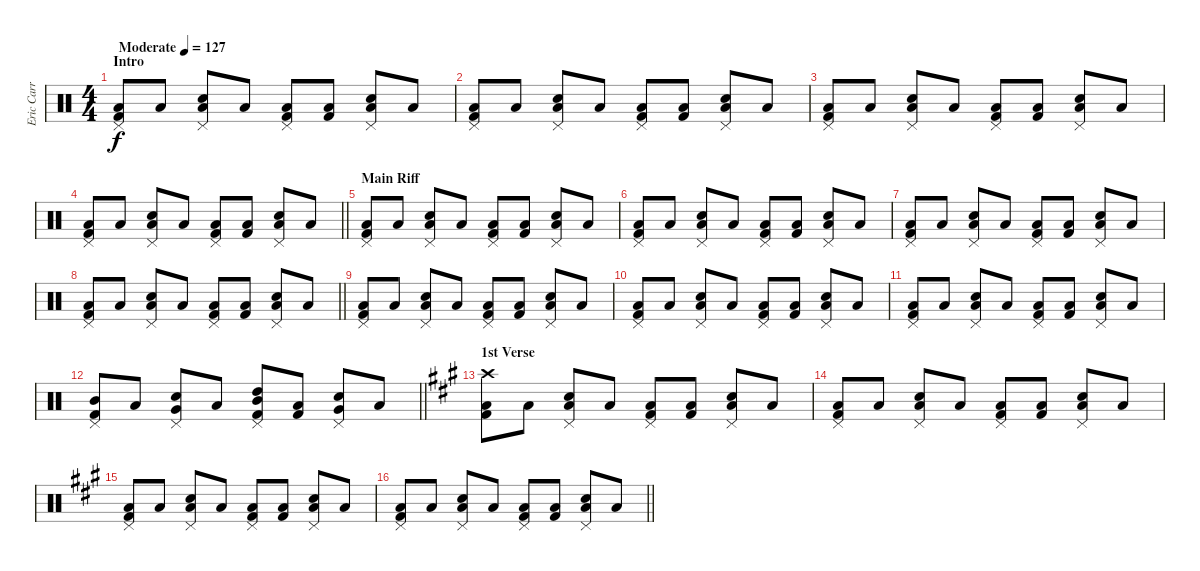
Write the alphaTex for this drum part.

\track ("Eric Carr (Drums)" "Eric Carr ") {instrument percussion}
\staff {score}
\articulation defaults
\ts (4 4)
\section ("" "Intro")
\tempo (127 "Moderate")
\clef neutral
\ks c
("Pedal Hi-Hat (hit)" "Low Tom (hit)" "Kick (hit) 2").8{dy f} "Low Tom (hit)".8 ("Pedal Hi-Hat (hit)" "Low Tom (hit)" "Snare (hit) 2").8 "Low Tom (hit)".8 ("Pedal Hi-Hat (hit)" "Low Tom (hit)" "Kick (hit) 2").8 ("Low Tom (hit)" "Kick (hit) 2").8 ("Pedal Hi-Hat (hit)" "Low Tom (hit)" "Snare (hit) 2").8 "Low Tom (hit)".8 |
("Pedal Hi-Hat (hit)" "Low Tom (hit)" "Kick (hit) 2").8 "Low Tom (hit)".8 ("Pedal Hi-Hat (hit)" "Low Tom (hit)" "Snare (hit) 2").8 "Low Tom (hit)".8 ("Pedal Hi-Hat (hit)" "Low Tom (hit)" "Kick (hit) 2").8 ("Low Tom (hit)" "Kick (hit) 2").8 ("Pedal Hi-Hat (hit)" "Low Tom (hit)" "Snare (hit) 2").8 "Low Tom (hit)".8 |
("Pedal Hi-Hat (hit)" "Low Tom (hit)" "Kick (hit) 2").8 "Low Tom (hit)".8 ("Pedal Hi-Hat (hit)" "Low Tom (hit)" "Snare (hit) 2").8 "Low Tom (hit)".8 ("Pedal Hi-Hat (hit)" "Low Tom (hit)" "Kick (hit) 2").8 ("Low Tom (hit)" "Kick (hit) 2").8 ("Pedal Hi-Hat (hit)" "Low Tom (hit)" "Snare (hit) 2").8 "Low Tom (hit)".8 |
\barLineRight lightlight
("Pedal Hi-Hat (hit)" "Low Tom (hit)" "Kick (hit) 2").8 "Low Tom (hit)".8 ("Pedal Hi-Hat (hit)" "Low Tom (hit)" "Snare (hit) 2").8 "Low Tom (hit)".8 ("Pedal Hi-Hat (hit)" "Low Tom (hit)" "Kick (hit) 2").8 ("Low Tom (hit)" "Kick (hit) 2").8 ("Pedal Hi-Hat (hit)" "Low Tom (hit)" "Snare (hit) 2").8 "Low Tom (hit)".8 |
\section ("" "Main Riff")
("Pedal Hi-Hat (hit)" "Low Tom (hit)" "Kick (hit) 2").8 "Low Tom (hit)".8 ("Pedal Hi-Hat (hit)" "Low Tom (hit)" "Snare (hit) 2").8 "Low Tom (hit)".8 ("Pedal Hi-Hat (hit)" "Low Tom (hit)" "Kick (hit) 2").8 ("Low Tom (hit)" "Kick (hit) 2").8 ("Pedal Hi-Hat (hit)" "Low Tom (hit)" "Snare (hit) 2").8 "Low Tom (hit)".8 |
("Pedal Hi-Hat (hit)" "Low Tom (hit)" "Kick (hit) 2").8 "Low Tom (hit)".8 ("Pedal Hi-Hat (hit)" "Low Tom (hit)" "Snare (hit) 2").8 "Low Tom (hit)".8 ("Pedal Hi-Hat (hit)" "Low Tom (hit)" "Kick (hit) 2").8 ("Low Tom (hit)" "Kick (hit) 2").8 ("Pedal Hi-Hat (hit)" "Low Tom (hit)" "Snare (hit) 2").8 "Low Tom (hit)".8 |
("Pedal Hi-Hat (hit)" "Low Tom (hit)" "Kick (hit) 2").8 "Low Tom (hit)".8 ("Pedal Hi-Hat (hit)" "Low Tom (hit)" "Snare (hit) 2").8 "Low Tom (hit)".8 ("Pedal Hi-Hat (hit)" "Low Tom (hit)" "Kick (hit) 2").8 ("Low Tom (hit)" "Kick (hit) 2").8 ("Pedal Hi-Hat (hit)" "Low Tom (hit)" "Snare (hit) 2").8 "Low Tom (hit)".8 |
\barLineRight lightlight
("Pedal Hi-Hat (hit)" "Low Tom (hit)" "Kick (hit) 2").8 "Low Tom (hit)".8 ("Pedal Hi-Hat (hit)" "Low Tom (hit)" "Snare (hit) 2").8 "Low Tom (hit)".8 ("Pedal Hi-Hat (hit)" "Low Tom (hit)" "Kick (hit) 2").8 ("Low Tom (hit)" "Kick (hit) 2").8 ("Pedal Hi-Hat (hit)" "Low Tom (hit)" "Snare (hit) 2").8 "Low Tom (hit)".8 |
("Pedal Hi-Hat (hit)" "Low Tom (hit)" "Kick (hit) 2").8 "Low Tom (hit)".8 ("Pedal Hi-Hat (hit)" "Low Tom (hit)" "Snare (hit) 2").8 "Low Tom (hit)".8 ("Pedal Hi-Hat (hit)" "Low Tom (hit)" "Kick (hit) 2").8 ("Low Tom (hit)" "Kick (hit) 2").8 ("Pedal Hi-Hat (hit)" "Low Tom (hit)" "Snare (hit) 2").8 "Low Tom (hit)".8 |
("Pedal Hi-Hat (hit)" "Low Tom (hit)" "Kick (hit) 2").8 "Low Tom (hit)".8 ("Pedal Hi-Hat (hit)" "Low Tom (hit)" "Snare (hit) 2").8 "Low Tom (hit)".8 ("Pedal Hi-Hat (hit)" "Low Tom (hit)" "Kick (hit) 2").8 ("Low Tom (hit)" "Kick (hit) 2").8 ("Pedal Hi-Hat (hit)" "Low Tom (hit)" "Snare (hit) 2").8 "Low Tom (hit)".8 |
("Pedal Hi-Hat (hit)" "Low Tom (hit)" "Kick (hit) 2").8 "Low Tom (hit)".8 ("Pedal Hi-Hat (hit)" "Low Tom (hit)" "Snare (hit) 2").8 "Low Tom (hit)".8 ("Pedal Hi-Hat (hit)" "Low Tom (hit)" "Kick (hit) 2").8 ("Low Tom (hit)" "Kick (hit) 2").8 ("Pedal Hi-Hat (hit)" "Low Tom (hit)" "Snare (hit) 2").8 "Low Tom (hit)".8 |
\barLineRight lightlight
("Pedal Hi-Hat (hit)" "Mid Tom (hit)" "Kick (hit) 2").8 "Low Tom (hit)".8 ("Pedal Hi-Hat (hit)" "Very Low Tom (hit)" "Snare (hit) 2").8 "Low Tom (hit)".8 ("Pedal Hi-Hat (hit)" "Mid Tom (hit)" "High Tom (hit)" "Kick (hit) 2").8 ("Low Tom (hit)" "Kick (hit) 2").8 ("Pedal Hi-Hat (hit)" "Very Low Tom (hit)" "Snare (hit) 2").8 "Low Tom (hit)".8 |
\section ("" "1st Verse")
\ks a
("Crash high (hit)" "Low Tom (hit)" "Kick (hit) 2").8 "Low Tom (hit)".8 ("Pedal Hi-Hat (hit)" "Low Tom (hit)" "Snare (hit) 2").8 "Low Tom (hit)".8 ("Pedal Hi-Hat (hit)" "Low Tom (hit)" "Kick (hit) 2").8 ("Low Tom (hit)" "Kick (hit) 2").8 ("Pedal Hi-Hat (hit)" "Low Tom (hit)" "Snare (hit) 2").8 "Low Tom (hit)".8 |
("Pedal Hi-Hat (hit)" "Low Tom (hit)" "Kick (hit) 2").8 "Low Tom (hit)".8 ("Pedal Hi-Hat (hit)" "Low Tom (hit)" "Snare (hit) 2").8 "Low Tom (hit)".8 ("Pedal Hi-Hat (hit)" "Low Tom (hit)" "Kick (hit) 2").8 ("Low Tom (hit)" "Kick (hit) 2").8 ("Pedal Hi-Hat (hit)" "Low Tom (hit)" "Snare (hit) 2").8 "Low Tom (hit)".8 |
("Pedal Hi-Hat (hit)" "Low Tom (hit)" "Kick (hit) 2").8 "Low Tom (hit)".8 ("Pedal Hi-Hat (hit)" "Low Tom (hit)" "Snare (hit) 2").8 "Low Tom (hit)".8 ("Pedal Hi-Hat (hit)" "Low Tom (hit)" "Kick (hit) 2").8 ("Low Tom (hit)" "Kick (hit) 2").8 ("Pedal Hi-Hat (hit)" "Low Tom (hit)" "Snare (hit) 2").8 "Low Tom (hit)".8 |
\barLineRight lightlight
("Pedal Hi-Hat (hit)" "Low Tom (hit)" "Kick (hit) 2").8 "Low Tom (hit)".8 ("Pedal Hi-Hat (hit)" "Low Tom (hit)" "Snare (hit) 2").8 "Low Tom (hit)".8 ("Pedal Hi-Hat (hit)" "Low Tom (hit)" "Kick (hit) 2").8 ("Low Tom (hit)" "Kick (hit) 2").8 ("Pedal Hi-Hat (hit)" "Low Tom (hit)" "Snare (hit) 2").8 "Low Tom (hit)".8
